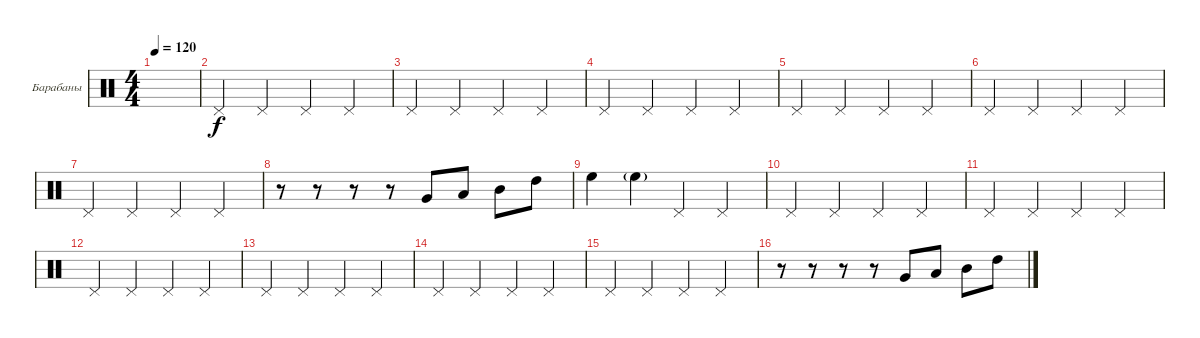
\defaultSystemsLayout 4
\bracketExtendMode groupsimilarinstruments
\firstSystemTrackNameOrientation horizontal
\otherSystemsTrackNameOrientation horizontal
\track ("Ударная установка" "Барабаны") {instrument percussion}
\staff {score}
\articulation defaults
\ts (4 4)
\tempo 120
\clef neutral
\ks c
|
"Pedal Hi-Hat (hit)".4 "Pedal Hi-Hat (hit)".4 "Pedal Hi-Hat (hit)".4 "Pedal Hi-Hat (hit)".4 |
"Pedal Hi-Hat (hit)".4 "Pedal Hi-Hat (hit)".4 "Pedal Hi-Hat (hit)".4 "Pedal Hi-Hat (hit)".4 |
"Pedal Hi-Hat (hit)".4 "Pedal Hi-Hat (hit)".4 "Pedal Hi-Hat (hit)".4 "Pedal Hi-Hat (hit)".4 |
"Pedal Hi-Hat (hit)".4 "Pedal Hi-Hat (hit)".4 "Pedal Hi-Hat (hit)".4 "Pedal Hi-Hat (hit)".4 |
"Pedal Hi-Hat (hit)".4 "Pedal Hi-Hat (hit)".4 "Pedal Hi-Hat (hit)".4 "Pedal Hi-Hat (hit)".4 |
"Pedal Hi-Hat (hit)".4 "Pedal Hi-Hat (hit)".4 "Pedal Hi-Hat (hit)".4 "Pedal Hi-Hat (hit)".4 |
r.8 r.8 r.8 r.8 "Very Low Tom (hit)".8 "Low Tom (hit)".8 "Mid Tom (hit)".8 "High Tom (hit)".8 |
"High Floor Tom (hit)".4 "High Floor Tom (hit)"{g}.4 "Pedal Hi-Hat (hit)".4 "Pedal Hi-Hat (hit)".4 |
"Pedal Hi-Hat (hit)".4 "Pedal Hi-Hat (hit)".4 "Pedal Hi-Hat (hit)".4 "Pedal Hi-Hat (hit)".4 |
"Pedal Hi-Hat (hit)".4 "Pedal Hi-Hat (hit)".4 "Pedal Hi-Hat (hit)".4 "Pedal Hi-Hat (hit)".4 |
"Pedal Hi-Hat (hit)".4 "Pedal Hi-Hat (hit)".4 "Pedal Hi-Hat (hit)".4 "Pedal Hi-Hat (hit)".4 |
"Pedal Hi-Hat (hit)".4 "Pedal Hi-Hat (hit)".4 "Pedal Hi-Hat (hit)".4 "Pedal Hi-Hat (hit)".4 |
"Pedal Hi-Hat (hit)".4 "Pedal Hi-Hat (hit)".4 "Pedal Hi-Hat (hit)".4 "Pedal Hi-Hat (hit)".4 |
"Pedal Hi-Hat (hit)".4 "Pedal Hi-Hat (hit)".4 "Pedal Hi-Hat (hit)".4 "Pedal Hi-Hat (hit)".4 |
r.8 r.8 r.8 r.8 "Very Low Tom (hit)".8 "Low Tom (hit)".8 "Mid Tom (hit)".8 "High Tom (hit)".8
